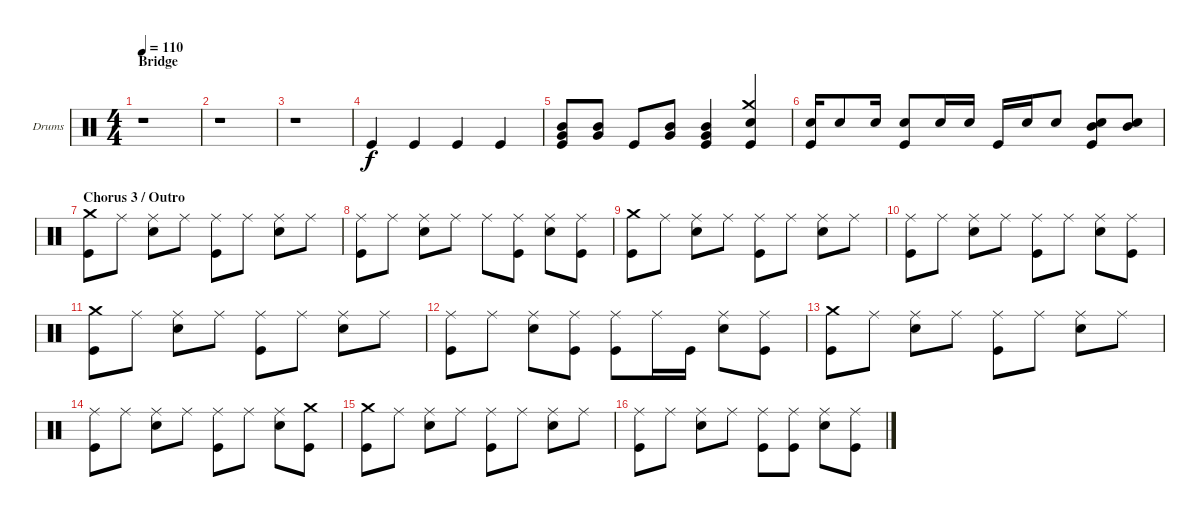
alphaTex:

\bracketExtendMode groupsimilarinstruments
\firstSystemTrackNameOrientation horizontal
\otherSystemsTrackNameOrientation horizontal
\track ("Drums" "Drums") {instrument percussion}
\staff {score}
\articulation defaults
\ts (4 4)
\section ("" "Bridge")
\tempo 110
\clef neutral
\ks c
r.1{dy f} |
r.1 |
r.1 |
"Kick (hit)".4 "Kick (hit)".4 "Kick (hit)".4 "Kick (hit)".4 |
("Mid Tom (hit)" "Very Low Tom (hit)" "Kick (hit)").8 ("Mid Tom (hit)" "Very Low Tom (hit)").8 "Kick (hit)".8 ("Mid Tom (hit)" "Very Low Tom (hit)").8 ("Mid Tom (hit)" "Very Low Tom (hit)" "Kick (hit)").4 ("Crash medium (hit)" "Snare (hit) 2" "Kick (hit)").4 |
("Snare (hit) 2" "Kick (hit)").16 "Snare (hit) 2".8 "Snare (hit) 2".16 ("Snare (hit) 2" "Kick (hit)").8 "Snare (hit) 2".16 "Snare (hit) 2".16 "Kick (hit)".16 "Snare (hit) 2".16 "Snare (hit) 2".8 ("Mid Tom (hit)" "Snare (hit) 2" "Kick (hit)").8 ("Mid Tom (hit)" "Snare (hit) 2").8 |
\section ("" "Chorus 3 / Outro")
("Crash medium (hit)" "Kick (hit)").8 "Ride (middle)".8 ("Ride (middle)" "Snare (hit) 2").8 "Ride (middle)".8 ("Ride (middle)" "Kick (hit)").8 "Ride (middle)".8 ("Ride (middle)" "Snare (hit) 2").8 "Ride (middle)".8 |
("Ride (middle)" "Kick (hit)").8 "Ride (middle)".8 ("Ride (middle)" "Snare (hit) 2").8 "Ride (middle)".8 "Ride (middle)".8 ("Ride (middle)" "Kick (hit)").8 ("Ride (middle)" "Snare (hit) 2").8 ("Ride (middle)" "Kick (hit)").8 |
("Crash medium (hit)" "Kick (hit)").8 "Ride (middle)".8 ("Ride (middle)" "Snare (hit) 2").8 "Ride (middle)".8 ("Ride (middle)" "Kick (hit)").8 "Ride (middle)".8 ("Ride (middle)" "Snare (hit) 2").8 "Ride (middle)".8 |
("Ride (middle)" "Kick (hit)").8 "Ride (middle)".8 ("Ride (middle)" "Snare (hit) 2").8 "Ride (middle)".8 ("Ride (middle)" "Kick (hit)").8 "Ride (middle)".8 ("Ride (middle)" "Snare (hit) 2").8 ("Ride (middle)" "Kick (hit)").8 |
("Crash medium (hit)" "Kick (hit)").8 "Ride (middle)".8 ("Ride (middle)" "Snare (hit) 2").8 "Ride (middle)".8 ("Ride (middle)" "Kick (hit)").8 "Ride (middle)".8 ("Ride (middle)" "Snare (hit) 2").8 "Ride (middle)".8 |
("Ride (middle)" "Kick (hit)").8 "Ride (middle)".8 ("Ride (middle)" "Snare (hit) 2").8 ("Ride (middle)" "Kick (hit)").8 ("Ride (middle)" "Kick (hit)").8 "Ride (middle)".16 "Kick (hit)".16 ("Ride (middle)" "Snare (hit) 2").8 ("Ride (middle)" "Kick (hit)").8 |
("Crash medium (hit)" "Kick (hit)").8 "Ride (middle)".8 ("Ride (middle)" "Snare (hit) 2").8 "Ride (middle)".8 ("Ride (middle)" "Kick (hit)").8 "Ride (middle)".8 ("Ride (middle)" "Snare (hit) 2").8 "Ride (middle)".8 |
("Ride (middle)" "Kick (hit)").8 "Ride (middle)".8 ("Ride (middle)" "Snare (hit) 2").8 "Ride (middle)".8 ("Ride (middle)" "Kick (hit)").8 "Ride (middle)".8 ("Ride (middle)" "Snare (hit) 2").8 ("Crash medium (hit)" "Kick (hit)").8 |
("Crash medium (hit)" "Kick (hit)").8 "Ride (middle)".8 ("Ride (middle)" "Snare (hit) 2").8 "Ride (middle)".8 ("Ride (middle)" "Kick (hit)").8 "Ride (middle)".8 ("Ride (middle)" "Snare (hit) 2").8 "Ride (middle)".8 |
("Ride (middle)" "Kick (hit)").8 "Ride (middle)".8 ("Ride (middle)" "Snare (hit) 2").8 "Ride (middle)".8 ("Ride (middle)" "Kick (hit)").8 ("Ride (middle)" "Kick (hit)").8 ("Ride (middle)" "Snare (hit) 2").8 ("Ride (middle)" "Kick (hit)").8
